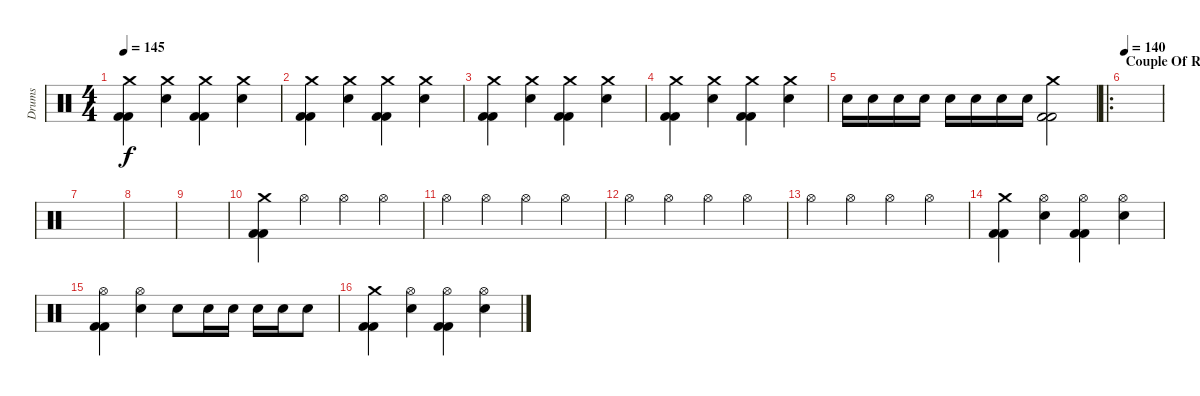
\track ("Drums" "Drums") {instrument percussion}
\staff {score}
\articulation defaults
\ts (4 4)
\tempo 145
\clef neutral
\ks c
("Crash medium (hit)" "Kick (hit) 2" "Kick (hit) 2").4{dy f} ("Electric Snare (hit)" "Crash medium (hit)").4 ("Kick (hit) 2" "Kick (hit) 2" "Crash medium (hit)").4 ("Crash medium (hit)" "Electric Snare (hit)").4 |
("Crash medium (hit)" "Kick (hit) 2" "Kick (hit) 2").4 ("Electric Snare (hit)" "Crash medium (hit)").4 ("Kick (hit) 2" "Kick (hit) 2" "Crash medium (hit)").4 ("Crash medium (hit)" "Electric Snare (hit)").4 |
("Crash medium (hit)" "Kick (hit) 2" "Kick (hit) 2").4 ("Electric Snare (hit)" "Crash medium (hit)").4 ("Kick (hit) 2" "Kick (hit) 2" "Crash medium (hit)").4 ("Crash medium (hit)" "Electric Snare (hit)").4 |
("Crash medium (hit)" "Kick (hit) 2" "Kick (hit) 2").4 ("Electric Snare (hit)" "Crash medium (hit)").4 ("Kick (hit) 2" "Kick (hit) 2" "Crash medium (hit)").4 ("Crash medium (hit)" "Electric Snare (hit)").4 |
"Electric Snare (hit)".16 "Electric Snare (hit)".16 "Electric Snare (hit)".16 "Electric Snare (hit)".16 "Electric Snare (hit)".16 "Electric Snare (hit)".16 "Electric Snare (hit)".16 "Electric Snare (hit)".16 ("Crash medium (hit)" "Kick (hit) 2" "Kick (hit) 2").2 |
\ro
\section ("" "Couple Of Riffs")
\tempo 140
|
|
|
|
("Crash medium (hit)" "Kick (hit) 2" "Kick (hit) 2").4 "Hi-Hat (open)".4 "Hi-Hat (open)".4 "Hi-Hat (open)".4 |
"Hi-Hat (open)".4 "Hi-Hat (open)".4 "Hi-Hat (open)".4 "Hi-Hat (open)".4 |
"Hi-Hat (open)".4 "Hi-Hat (open)".4 "Hi-Hat (open)".4 "Hi-Hat (open)".4 |
"Hi-Hat (open)".4 "Hi-Hat (open)".4 "Hi-Hat (open)".4 "Hi-Hat (open)".4 |
("Crash medium (hit)" "Kick (hit) 2" "Kick (hit) 2").4 ("Electric Snare (hit)" "Hi-Hat (open)").4 ("Kick (hit) 2" "Kick (hit) 2" "Hi-Hat (open)").4 ("Hi-Hat (open)" "Electric Snare (hit)").4 |
("Hi-Hat (open)" "Kick (hit) 2" "Kick (hit) 2").4 ("Electric Snare (hit)" "Hi-Hat (open)").4 "Electric Snare (hit)".8 "Electric Snare (hit)".16 "Electric Snare (hit)".16 "Electric Snare (hit)".16 "Electric Snare (hit)".16 "Electric Snare (hit)".8 |
("Crash medium (hit)" "Kick (hit) 2" "Kick (hit) 2").4 ("Electric Snare (hit)" "Hi-Hat (open)").4 ("Kick (hit) 2" "Kick (hit) 2" "Hi-Hat (open)").4 ("Hi-Hat (open)" "Electric Snare (hit)").4
